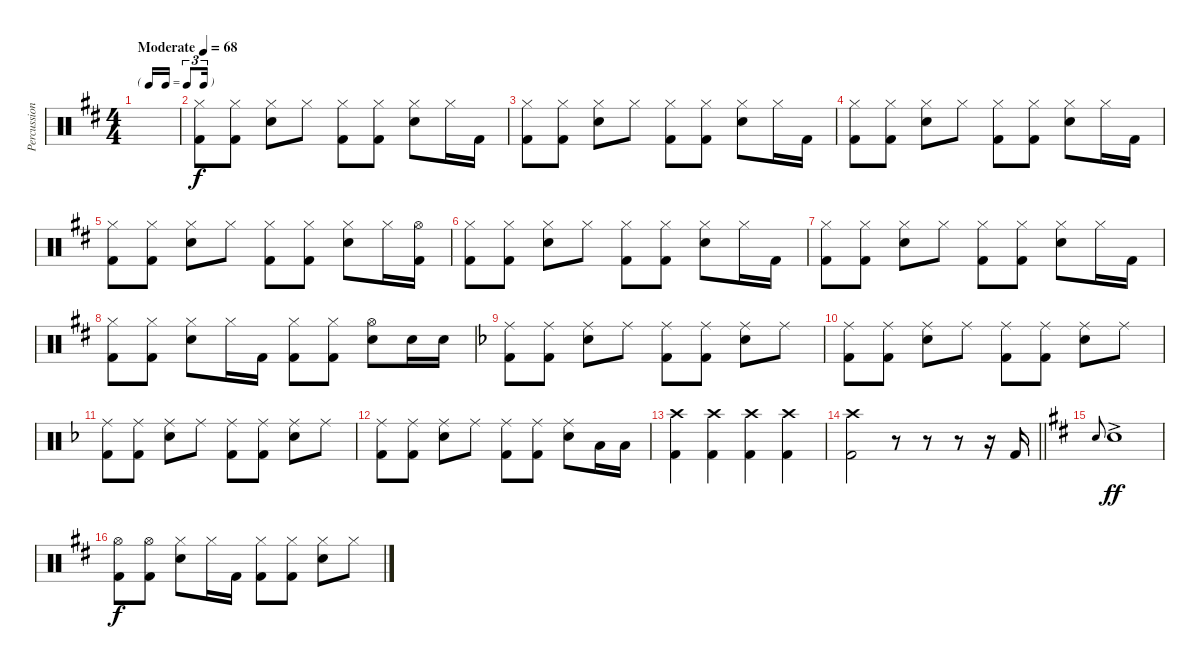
\track ("Percussion" "Percussion") {instrument percussion}
\staff {score}
\articulation defaults
\ts (4 4)
\tf triplet16th
\tempo (68 "Moderate")
\clef neutral
\ks d
|
("Hi-Hat (closed)" "Kick (hit) 2").8 ("Hi-Hat (closed)" "Kick (hit) 2").8 ("Hi-Hat (closed)" "Snare (hit) 2").8 "Hi-Hat (closed)".8 ("Hi-Hat (closed)" "Kick (hit) 2").8 ("Hi-Hat (closed)" "Kick (hit) 2").8 ("Hi-Hat (closed)" "Snare (hit) 2").8 "Hi-Hat (closed)".16 "Kick (hit) 2".16 |
("Hi-Hat (closed)" "Kick (hit) 2").8 ("Hi-Hat (closed)" "Kick (hit) 2").8 ("Hi-Hat (closed)" "Snare (hit) 2").8 "Hi-Hat (closed)".8 ("Hi-Hat (closed)" "Kick (hit) 2").8 ("Hi-Hat (closed)" "Kick (hit) 2").8 ("Hi-Hat (closed)" "Snare (hit) 2").8 "Hi-Hat (closed)".16 "Kick (hit) 2".16 |
("Hi-Hat (closed)" "Kick (hit) 2").8 ("Hi-Hat (closed)" "Kick (hit) 2").8 ("Hi-Hat (closed)" "Snare (hit) 2").8 "Hi-Hat (closed)".8 ("Hi-Hat (closed)" "Kick (hit) 2").8 ("Hi-Hat (closed)" "Kick (hit) 2").8 ("Hi-Hat (closed)" "Snare (hit) 2").8 "Hi-Hat (closed)".16 "Kick (hit) 2".16 |
("Hi-Hat (closed)" "Kick (hit) 2").8 ("Hi-Hat (closed)" "Kick (hit) 2").8 ("Hi-Hat (closed)" "Snare (hit) 2").8 "Hi-Hat (closed)".8 ("Hi-Hat (closed)" "Kick (hit) 2").8 ("Hi-Hat (closed)" "Kick (hit) 2").8 ("Hi-Hat (closed)" "Snare (hit) 2").8 "Hi-Hat (closed)".16 ("Hi-Hat (open)" "Kick (hit) 2").16 |
("Hi-Hat (closed)" "Kick (hit) 2").8 ("Hi-Hat (closed)" "Kick (hit) 2").8 ("Hi-Hat (closed)" "Snare (hit) 2").8 "Hi-Hat (closed)".8 ("Hi-Hat (closed)" "Kick (hit) 2").8 ("Hi-Hat (closed)" "Kick (hit) 2").8 ("Hi-Hat (closed)" "Snare (hit) 2").8 "Hi-Hat (closed)".16 "Kick (hit) 2".16 |
("Hi-Hat (closed)" "Kick (hit) 2").8 ("Hi-Hat (closed)" "Kick (hit) 2").8 ("Hi-Hat (closed)" "Snare (hit) 2").8 "Hi-Hat (closed)".8 ("Hi-Hat (closed)" "Kick (hit) 2").8 ("Hi-Hat (closed)" "Kick (hit) 2").8 ("Hi-Hat (closed)" "Snare (hit) 2").8 "Hi-Hat (closed)".16 "Kick (hit) 2".16 |
("Hi-Hat (closed)" "Kick (hit) 2").8 ("Hi-Hat (closed)" "Kick (hit) 2").8 ("Hi-Hat (closed)" "Snare (hit) 2").8 "Hi-Hat (closed)".16 "Kick (hit) 2".16 ("Hi-Hat (closed)" "Kick (hit) 2").8 ("Hi-Hat (closed)" "Kick (hit) 2").8 ("Hi-Hat (open)" "Snare (hit) 2").8 "Snare (hit) 2".16 "Snare (hit) 2".16 |
\ks f
("Ride (middle)" "Kick (hit) 2").8 ("Ride (middle)" "Kick (hit) 2").8 ("Ride (middle)" "Snare (hit) 2").8 "Ride (middle)".8 ("Ride (middle)" "Kick (hit) 2").8 ("Ride (middle)" "Kick (hit) 2").8 ("Ride (middle)" "Snare (hit) 2").8 "Ride (middle)".8 |
("Ride (middle)" "Kick (hit) 2").8 ("Ride (middle)" "Kick (hit) 2").8 ("Ride (middle)" "Snare (hit) 2").8 "Ride (middle)".8 ("Ride (middle)" "Kick (hit) 2").8 ("Ride (middle)" "Kick (hit) 2").8 ("Ride (middle)" "Snare (hit) 2").8 "Ride (middle)".8 |
("Ride (middle)" "Kick (hit) 2").8 ("Ride (middle)" "Kick (hit) 2").8 ("Ride (middle)" "Snare (hit) 2").8 "Ride (middle)".8 ("Ride (middle)" "Kick (hit) 2").8 ("Ride (middle)" "Kick (hit) 2").8 ("Ride (middle)" "Snare (hit) 2").8 "Ride (middle)".8 |
("Ride (middle)" "Kick (hit) 2").8 ("Ride (middle)" "Kick (hit) 2").8 ("Ride (middle)" "Snare (hit) 2").8 "Ride (middle)".8 ("Ride (middle)" "Kick (hit) 2").8 ("Ride (middle)" "Kick (hit) 2").8 ("Ride (middle)" "Snare (hit) 2").8 "Low Floor Tom (hit)".16 "Low Floor Tom (hit)".16 |
("Crash high (hit)" "Kick (hit) 2").4 ("Crash high (hit)" "Kick (hit) 2").4 ("Crash high (hit)" "Kick (hit) 2").4 ("Crash high (hit)" "Kick (hit) 2").4 |
\barLineRight lightlight
("Crash high (hit)" "Kick (hit) 2").2 r.8 r.8 r.8 r.16 "Kick (hit) 2".16 |
\ks d "Snare (hit) 2".8{gr onbeat} "Snare (hit) 2"{ac}.1{dy ff}
|
("Hi-Hat (open)" "Kick (hit) 2").8{dy f} ("Hi-Hat (open)" "Kick (hit) 2").8 ("Hi-Hat (closed)" "Snare (hit) 2").8 "Hi-Hat (closed)".16 "Kick (hit) 2".16 ("Hi-Hat (closed)" "Kick (hit) 2").8 ("Hi-Hat (closed)" "Kick (hit) 2").8 ("Hi-Hat (closed)" "Snare (hit) 2").8 "Hi-Hat (closed)".8
